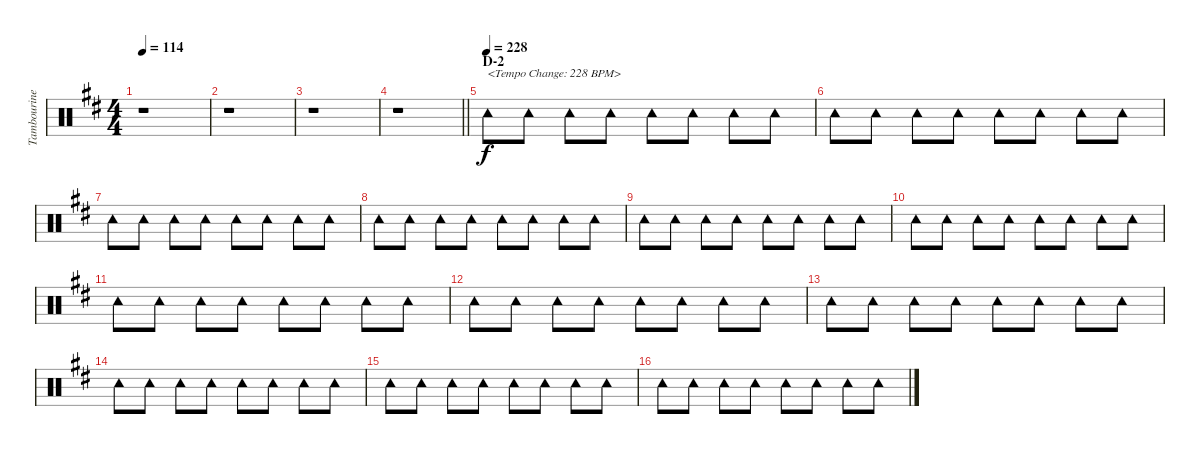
\track ("Tambourine" "Tambourine") {instrument percussion}
\staff {score}
\articulation defaults
\ts (4 4)
\tempo 114
\clef neutral
\ks d
r.1{dy f} |
r.1 |
r.1 |
\barLineRight lightlight
r.1 |
\section ("" "D-2")
\tempo (228)
"Tambourine (hit)".8{txt "<Tempo Change: 228 BPM>"} "Tambourine (hit)".8 "Tambourine (hit)".8 "Tambourine (hit)".8 "Tambourine (hit)".8 "Tambourine (hit)".8 "Tambourine (hit)".8 "Tambourine (hit)".8 |
"Tambourine (hit)".8 "Tambourine (hit)".8 "Tambourine (hit)".8 "Tambourine (hit)".8 "Tambourine (hit)".8 "Tambourine (hit)".8 "Tambourine (hit)".8 "Tambourine (hit)".8 |
"Tambourine (hit)".8 "Tambourine (hit)".8 "Tambourine (hit)".8 "Tambourine (hit)".8 "Tambourine (hit)".8 "Tambourine (hit)".8 "Tambourine (hit)".8 "Tambourine (hit)".8 |
"Tambourine (hit)".8 "Tambourine (hit)".8 "Tambourine (hit)".8 "Tambourine (hit)".8 "Tambourine (hit)".8 "Tambourine (hit)".8 "Tambourine (hit)".8 "Tambourine (hit)".8 |
"Tambourine (hit)".8 "Tambourine (hit)".8 "Tambourine (hit)".8 "Tambourine (hit)".8 "Tambourine (hit)".8 "Tambourine (hit)".8 "Tambourine (hit)".8 "Tambourine (hit)".8 |
"Tambourine (hit)".8 "Tambourine (hit)".8 "Tambourine (hit)".8 "Tambourine (hit)".8 "Tambourine (hit)".8 "Tambourine (hit)".8 "Tambourine (hit)".8 "Tambourine (hit)".8 |
"Tambourine (hit)".8 "Tambourine (hit)".8 "Tambourine (hit)".8 "Tambourine (hit)".8 "Tambourine (hit)".8 "Tambourine (hit)".8 "Tambourine (hit)".8 "Tambourine (hit)".8 |
"Tambourine (hit)".8 "Tambourine (hit)".8 "Tambourine (hit)".8 "Tambourine (hit)".8 "Tambourine (hit)".8 "Tambourine (hit)".8 "Tambourine (hit)".8 "Tambourine (hit)".8 |
"Tambourine (hit)".8 "Tambourine (hit)".8 "Tambourine (hit)".8 "Tambourine (hit)".8 "Tambourine (hit)".8 "Tambourine (hit)".8 "Tambourine (hit)".8 "Tambourine (hit)".8 |
"Tambourine (hit)".8 "Tambourine (hit)".8 "Tambourine (hit)".8 "Tambourine (hit)".8 "Tambourine (hit)".8 "Tambourine (hit)".8 "Tambourine (hit)".8 "Tambourine (hit)".8 |
"Tambourine (hit)".8 "Tambourine (hit)".8 "Tambourine (hit)".8 "Tambourine (hit)".8 "Tambourine (hit)".8 "Tambourine (hit)".8 "Tambourine (hit)".8 "Tambourine (hit)".8 |
"Tambourine (hit)".8 "Tambourine (hit)".8 "Tambourine (hit)".8 "Tambourine (hit)".8 "Tambourine (hit)".8 "Tambourine (hit)".8 "Tambourine (hit)".8 "Tambourine (hit)".8
